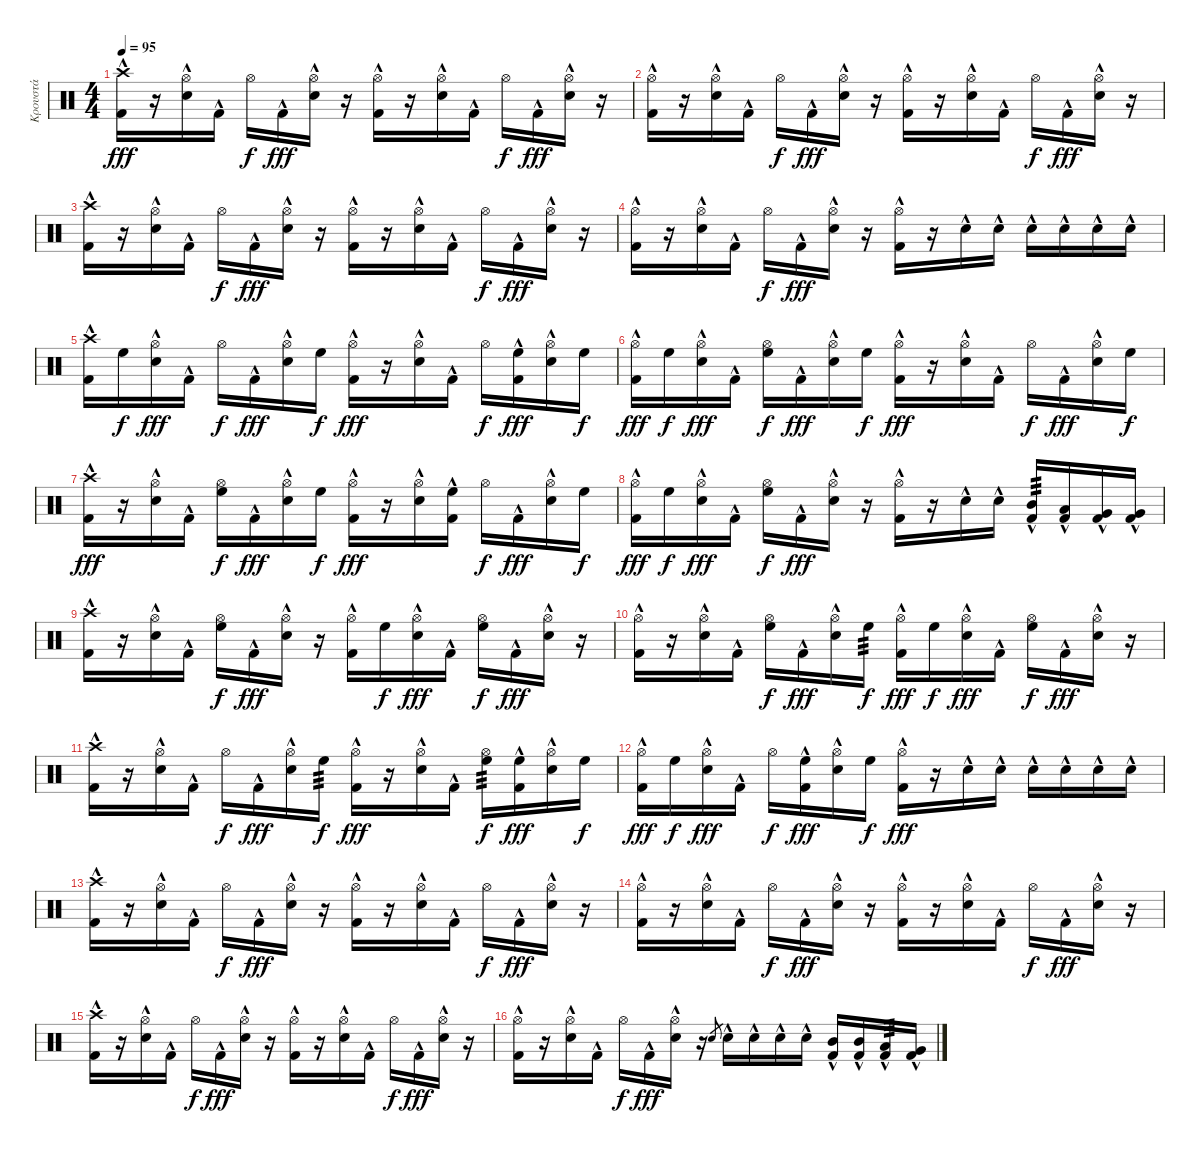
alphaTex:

\track ("Κρουστά" "Κρουστά") {instrument percussion}
\staff {score}
\articulation defaults
\ts (4 4)
\tempo 95
\clef neutral
\ks c
("Crash high (hit)" "Kick (hit) 2"{hac}).16{dy fff} r.16 ("Hi-Hat (open)" "Electric Snare (hit)"{hac}).16 "Kick (hit) 2"{hac}.16 "Hi-Hat (open)".16{dy f} "Kick (hit) 2"{hac}.16{dy fff} ("Hi-Hat (open)" "Electric Snare (hit)"{hac}).16 r.16 ("Hi-Hat (open)" "Kick (hit) 2"{hac}).16 r.16 ("Hi-Hat (open)" "Electric Snare (hit)"{hac}).16 "Kick (hit) 2"{hac}.16 "Hi-Hat (open)".16{dy f} "Kick (hit) 2"{hac}.16{dy fff} ("Hi-Hat (open)" "Electric Snare (hit)"{hac}).16 r.16 |
("Hi-Hat (open)" "Kick (hit) 2"{hac}).16 r.16 ("Hi-Hat (open)" "Electric Snare (hit)"{hac}).16 "Kick (hit) 2"{hac}.16 "Hi-Hat (open)".16{dy f} "Kick (hit) 2"{hac}.16{dy fff} ("Hi-Hat (open)" "Electric Snare (hit)"{hac}).16 r.16 ("Hi-Hat (open)" "Kick (hit) 2"{hac}).16 r.16 ("Hi-Hat (open)" "Electric Snare (hit)"{hac}).16 "Kick (hit) 2"{hac}.16 "Hi-Hat (open)".16{dy f} "Kick (hit) 2"{hac}.16{dy fff} ("Hi-Hat (open)" "Electric Snare (hit)"{hac}).16 r.16 |
("Crash high (hit)" "Kick (hit) 2"{hac}).16 r.16 ("Hi-Hat (open)" "Electric Snare (hit)"{hac}).16 "Kick (hit) 2"{hac}.16 "Hi-Hat (open)".16{dy f} "Kick (hit) 2"{hac}.16{dy fff} ("Hi-Hat (open)" "Electric Snare (hit)"{hac}).16 r.16 ("Hi-Hat (open)" "Kick (hit) 2"{hac}).16 r.16 ("Hi-Hat (open)" "Electric Snare (hit)"{hac}).16 "Kick (hit) 2"{hac}.16 "Hi-Hat (open)".16{dy f} "Kick (hit) 2"{hac}.16{dy fff} ("Hi-Hat (open)" "Electric Snare (hit)"{hac}).16 r.16 |
("Hi-Hat (open)" "Kick (hit) 2"{hac}).16 r.16 ("Hi-Hat (open)" "Electric Snare (hit)"{hac}).16 "Kick (hit) 2"{hac}.16 "Hi-Hat (open)".16{dy f} "Kick (hit) 2"{hac}.16{dy fff} ("Hi-Hat (open)" "Electric Snare (hit)"{hac}).16 r.16 ("Hi-Hat (open)" "Kick (hit) 2"{hac}).16 r.16 "Electric Snare (hit)"{hac}.16 "Electric Snare (hit)"{hac}.16 "Electric Snare (hit)"{hac}.16 "Electric Snare (hit)"{hac}.16 "Electric Snare (hit)"{hac}.16 "Electric Snare (hit)"{hac}.16 |
("Crash high (hit)" "Kick (hit) 2"{hac}).16 "High Floor Tom (hit)".16{dy f} ("Hi-Hat (open)" "Electric Snare (hit)"{hac}).16{dy fff} "Kick (hit) 2"{hac}.16 "Hi-Hat (open)".16{dy f} "Kick (hit) 2"{hac}.16{dy fff} ("Hi-Hat (open)" "Electric Snare (hit)"{hac}).16 "High Floor Tom (hit)".16{dy f} ("Hi-Hat (open)" "Kick (hit) 2"{hac}).16{dy fff} r.16 ("Hi-Hat (open)" "Electric Snare (hit)"{hac}).16 "Kick (hit) 2"{hac}.16 "Hi-Hat (open)".16{dy f} ("High Floor Tom (hit)" "Kick (hit) 2"{hac}).16{dy fff} ("Hi-Hat (open)" "Electric Snare (hit)"{hac}).16 "High Floor Tom (hit)".16{dy f} |
("Hi-Hat (open)" "Kick (hit) 2"{hac}).16{dy fff} "High Floor Tom (hit)".16{dy f} ("Hi-Hat (open)" "Electric Snare (hit)"{hac}).16{dy fff} "Kick (hit) 2"{hac}.16 ("Hi-Hat (open)" "High Floor Tom (hit)").16{dy f} "Kick (hit) 2"{hac}.16{dy fff} ("Hi-Hat (open)" "Electric Snare (hit)"{hac}).16 "High Floor Tom (hit)".16{dy f} ("Hi-Hat (open)" "Kick (hit) 2"{hac}).16{dy fff} r.16 ("Hi-Hat (open)" "Electric Snare (hit)"{hac}).16 "Kick (hit) 2"{hac}.16 "Hi-Hat (open)".16{dy f} "Kick (hit) 2"{hac}.16{dy fff} ("Hi-Hat (open)" "Electric Snare (hit)"{hac}).16 "High Floor Tom (hit)".16{dy f} |
("Crash high (hit)" "Kick (hit) 2"{hac}).16{dy fff} r.16 ("Hi-Hat (open)" "Electric Snare (hit)"{hac}).16 "Kick (hit) 2"{hac}.16 ("Hi-Hat (open)" "High Floor Tom (hit)").16{dy f} "Kick (hit) 2"{hac}.16{dy fff} ("Hi-Hat (open)" "Electric Snare (hit)"{hac}).16 "High Floor Tom (hit)".16{dy f} ("Hi-Hat (open)" "Kick (hit) 2"{hac}).16{dy fff} r.16 ("Hi-Hat (open)" "Electric Snare (hit)"{hac}).16 ("High Floor Tom (hit)" "Kick (hit) 2"{hac}).16 "Hi-Hat (open)".16{dy f} "Kick (hit) 2"{hac}.16{dy fff} ("Hi-Hat (open)" "Electric Snare (hit)"{hac}).16 "High Floor Tom (hit)".16{dy f} |
("Hi-Hat (open)" "Kick (hit) 2"{hac}).16{dy fff} "High Floor Tom (hit)".16{dy f} ("Hi-Hat (open)" "Electric Snare (hit)"{hac}).16{dy fff} "Kick (hit) 2"{hac}.16 ("Hi-Hat (open)" "High Floor Tom (hit)").16{dy f} "Kick (hit) 2"{hac}.16{dy fff} ("Hi-Hat (open)" "Electric Snare (hit)"{hac}).16 r.16 ("Hi-Hat (open)" "Kick (hit) 2"{hac}).16 r.16 "Electric Snare (hit)"{hac}.16 "Electric Snare (hit)"{hac}.16 ("Mid Tom (hit)" "Kick (hit) 2"{hac}).16{tp 3} ("Low Tom (hit)" "Kick (hit) 2"{hac}).16 ("Very Low Tom (hit)" "Kick (hit) 2"{hac}).16 ("Very Low Tom (hit)" "Kick (hit) 2"{hac}).16 |
("Crash high (hit)" "Kick (hit) 2"{hac}).16 r.16 ("Hi-Hat (open)" "Electric Snare (hit)"{hac}).16 "Kick (hit) 2"{hac}.16 ("Hi-Hat (open)" "High Floor Tom (hit)").16{dy f} "Kick (hit) 2"{hac}.16{dy fff} ("Hi-Hat (open)" "Electric Snare (hit)"{hac}).16 r.16 ("Hi-Hat (open)" "Kick (hit) 2"{hac}).16 "High Floor Tom (hit)".16{dy f} ("Hi-Hat (open)" "Electric Snare (hit)"{hac}).16{dy fff} "Kick (hit) 2"{hac}.16 ("Hi-Hat (open)" "High Floor Tom (hit)").16{dy f} "Kick (hit) 2"{hac}.16{dy fff} ("Hi-Hat (open)" "Electric Snare (hit)"{hac}).16 r.16 |
("Hi-Hat (open)" "Kick (hit) 2"{hac}).16 r.16 ("Hi-Hat (open)" "Electric Snare (hit)"{hac}).16 "Kick (hit) 2"{hac}.16 ("Hi-Hat (open)" "High Floor Tom (hit)").16{dy f} "Kick (hit) 2"{hac}.16{dy fff} ("Hi-Hat (open)" "Electric Snare (hit)"{hac}).16 "High Floor Tom (hit)".16{tp 3 dy f} ("Hi-Hat (open)" "Kick (hit) 2"{hac}).16{dy fff} "High Floor Tom (hit)".16{dy f} ("Hi-Hat (open)" "Electric Snare (hit)"{hac}).16{dy fff} "Kick (hit) 2"{hac}.16 ("Hi-Hat (open)" "High Floor Tom (hit)").16{dy f} "Kick (hit) 2"{hac}.16{dy fff} ("Hi-Hat (open)" "Electric Snare (hit)"{hac}).16 r.16 |
("Crash high (hit)" "Kick (hit) 2"{hac}).16 r.16 ("Hi-Hat (open)" "Electric Snare (hit)"{hac}).16 "Kick (hit) 2"{hac}.16 "Hi-Hat (open)".16{dy f} "Kick (hit) 2"{hac}.16{dy fff} ("Hi-Hat (open)" "Electric Snare (hit)"{hac}).16 "High Floor Tom (hit)".16{tp 3 dy f} ("Hi-Hat (open)" "Kick (hit) 2"{hac}).16{dy fff} r.16 ("Hi-Hat (open)" "Electric Snare (hit)"{hac}).16 "Kick (hit) 2"{hac}.16 ("Hi-Hat (open)" "High Floor Tom (hit)").16{tp 3 dy f} ("High Floor Tom (hit)" "Kick (hit) 2"{hac}).16{dy fff} ("Hi-Hat (open)" "Electric Snare (hit)"{hac}).16 "High Floor Tom (hit)".16{dy f} |
("Hi-Hat (open)" "Kick (hit) 2"{hac}).16{dy fff} "High Floor Tom (hit)".16{dy f} ("Hi-Hat (open)" "Electric Snare (hit)"{hac}).16{dy fff} "Kick (hit) 2"{hac}.16 "Hi-Hat (open)".16{dy f} ("High Floor Tom (hit)" "Kick (hit) 2"{hac}).16{dy fff} ("Hi-Hat (open)" "Electric Snare (hit)"{hac}).16 "High Floor Tom (hit)".16{dy f} ("Hi-Hat (open)" "Kick (hit) 2"{hac}).16{dy fff} r.16 "Electric Snare (hit)"{hac}.16 "Electric Snare (hit)"{hac}.16 "Electric Snare (hit)"{hac}.16 "Electric Snare (hit)"{hac}.16 "Electric Snare (hit)"{hac}.16 "Electric Snare (hit)"{hac}.16 |
("Crash high (hit)" "Kick (hit) 2"{hac}).16 r.16 ("Hi-Hat (open)" "Electric Snare (hit)"{hac}).16 "Kick (hit) 2"{hac}.16 "Hi-Hat (open)".16{dy f} "Kick (hit) 2"{hac}.16{dy fff} ("Hi-Hat (open)" "Electric Snare (hit)"{hac}).16 r.16 ("Hi-Hat (open)" "Kick (hit) 2"{hac}).16 r.16 ("Hi-Hat (open)" "Electric Snare (hit)"{hac}).16 "Kick (hit) 2"{hac}.16 "Hi-Hat (open)".16{dy f} "Kick (hit) 2"{hac}.16{dy fff} ("Hi-Hat (open)" "Electric Snare (hit)"{hac}).16 r.16 |
("Hi-Hat (open)" "Kick (hit) 2"{hac}).16 r.16 ("Hi-Hat (open)" "Electric Snare (hit)"{hac}).16 "Kick (hit) 2"{hac}.16 "Hi-Hat (open)".16{dy f} "Kick (hit) 2"{hac}.16{dy fff} ("Hi-Hat (open)" "Electric Snare (hit)"{hac}).16 r.16 ("Hi-Hat (open)" "Kick (hit) 2"{hac}).16 r.16 ("Hi-Hat (open)" "Electric Snare (hit)"{hac}).16 "Kick (hit) 2"{hac}.16 "Hi-Hat (open)".16{dy f} "Kick (hit) 2"{hac}.16{dy fff} ("Hi-Hat (open)" "Electric Snare (hit)"{hac}).16 r.16 |
("Crash high (hit)" "Kick (hit) 2"{hac}).16 r.16 ("Hi-Hat (open)" "Electric Snare (hit)"{hac}).16 "Kick (hit) 2"{hac}.16 "Hi-Hat (open)".16{dy f} "Kick (hit) 2"{hac}.16{dy fff} ("Hi-Hat (open)" "Electric Snare (hit)"{hac}).16 r.16 ("Hi-Hat (open)" "Kick (hit) 2"{hac}).16 r.16 ("Hi-Hat (open)" "Electric Snare (hit)"{hac}).16 "Kick (hit) 2"{hac}.16 "Hi-Hat (open)".16{dy f} "Kick (hit) 2"{hac}.16{dy fff} ("Hi-Hat (open)" "Electric Snare (hit)"{hac}).16 r.16 |
("Hi-Hat (open)" "Kick (hit) 2"{hac}).16 r.16 ("Hi-Hat (open)" "Electric Snare (hit)"{hac}).16 "Kick (hit) 2"{hac}.16 "Hi-Hat (open)".16{dy f} "Kick (hit) 2"{hac}.16{dy fff} ("Hi-Hat (open)" "Electric Snare (hit)"{hac}).16 r.16 "Electric Snare (hit)".8{gr} "Electric Snare (hit)"{hac}.16 "Electric Snare (hit)"{hac}.16 "Electric Snare (hit)"{hac}.16 "Electric Snare (hit)"{hac}.16 ("Mid Tom (hit)" "Kick (hit) 2"{hac}).16 ("Mid Tom (hit)" "Kick (hit) 2"{hac}).16 ("Low Tom (hit)" "Kick (hit) 2"{hac}).16{tp 3} ("Very Low Tom (hit)" "Kick (hit) 2"{hac}).16
